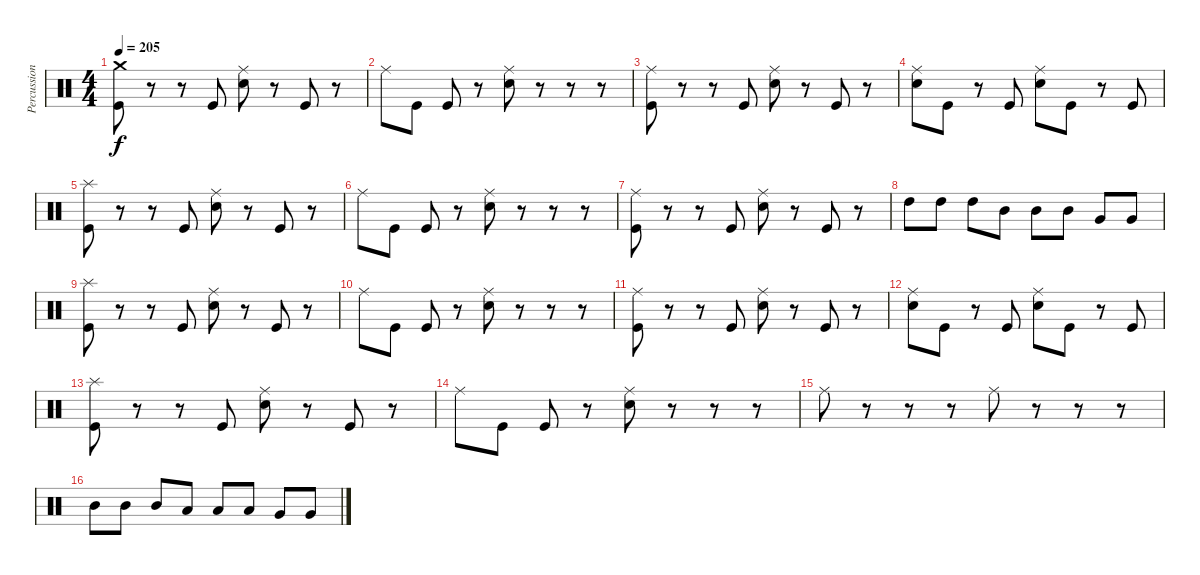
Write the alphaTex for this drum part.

\track ("Percussion" "Percussion") {instrument percussion}
\staff {score}
\articulation defaults
\ts (4 4)
\tempo 205
\clef neutral
\ks c
("Kick (hit)" "Crash medium (hit)").8{dy f} r.8 r.8 "Kick (hit)".8 ("Snare (hit) 2" "Ride (middle)").8 r.8 "Kick (hit)".8 r.8 |
"Ride (middle)".8 "Kick (hit)".8 "Kick (hit)".8 r.8 ("Snare (hit) 2" "Ride (middle)").8 r.8 r.8 r.8 |
("Kick (hit)" "Ride (middle)").8 r.8 r.8 "Kick (hit)".8 ("Snare (hit) 2" "Ride (middle)").8 r.8 "Kick (hit)".8 r.8 |
("Snare (hit) 2" "Ride (middle)").8 "Kick (hit)".8 r.8 "Kick (hit)".8 ("Snare (hit) 2" "Ride (middle)").8 "Kick (hit)".8 r.8 "Kick (hit)".8 |
("Kick (hit)" "Splash (hit)").8 r.8 r.8 "Kick (hit)".8 ("Snare (hit) 2" "Ride (middle)").8 r.8 "Kick (hit)".8 r.8 |
"Ride (middle)".8 "Kick (hit)".8 "Kick (hit)".8 r.8 ("Snare (hit) 2" "Ride (middle)").8 r.8 r.8 r.8 |
("Kick (hit)" "Ride (middle)").8 r.8 r.8 "Kick (hit)".8 ("Snare (hit) 2" "Ride (middle)").8 r.8 "Kick (hit)".8 r.8 |
"High Tom (hit)".8 "High Tom (hit)".8 "High Tom (hit)".8 "Mid Tom (hit)".8 "Mid Tom (hit)".8 "Mid Tom (hit)".8 "Very Low Tom (hit)".8 "Very Low Tom (hit)".8 |
("Kick (hit)" "Splash (hit)").8 r.8 r.8 "Kick (hit)".8 ("Snare (hit) 2" "Ride (middle)").8 r.8 "Kick (hit)".8 r.8 |
"Ride (middle)".8 "Kick (hit)".8 "Kick (hit)".8 r.8 ("Snare (hit) 2" "Ride (middle)").8 r.8 r.8 r.8 |
("Kick (hit)" "Ride (middle)").8 r.8 r.8 "Kick (hit)".8 ("Snare (hit) 2" "Ride (middle)").8 r.8 "Kick (hit)".8 r.8 |
("Snare (hit) 2" "Ride (middle)").8 "Kick (hit)".8 r.8 "Kick (hit)".8 ("Snare (hit) 2" "Ride (middle)").8 "Kick (hit)".8 r.8 "Kick (hit)".8 |
("Kick (hit)" "Splash (hit)").8 r.8 r.8 "Kick (hit)".8 ("Snare (hit) 2" "Ride (middle)").8 r.8 "Kick (hit)".8 r.8 |
"Ride (middle)".8 "Kick (hit)".8 "Kick (hit)".8 r.8 ("Snare (hit) 2" "Ride (middle)").8 r.8 r.8 r.8 |
"Ride (middle)".8 r.8 r.8 r.8 "Ride (middle)".8 r.8 r.8 r.8 |
"Mid Tom (hit)".8 "Mid Tom (hit)".8 "Mid Tom (hit)".8 "Low Tom (hit)".8 "Low Tom (hit)".8 "Low Tom (hit)".8 "Very Low Tom (hit)".8 "Very Low Tom (hit)".8
